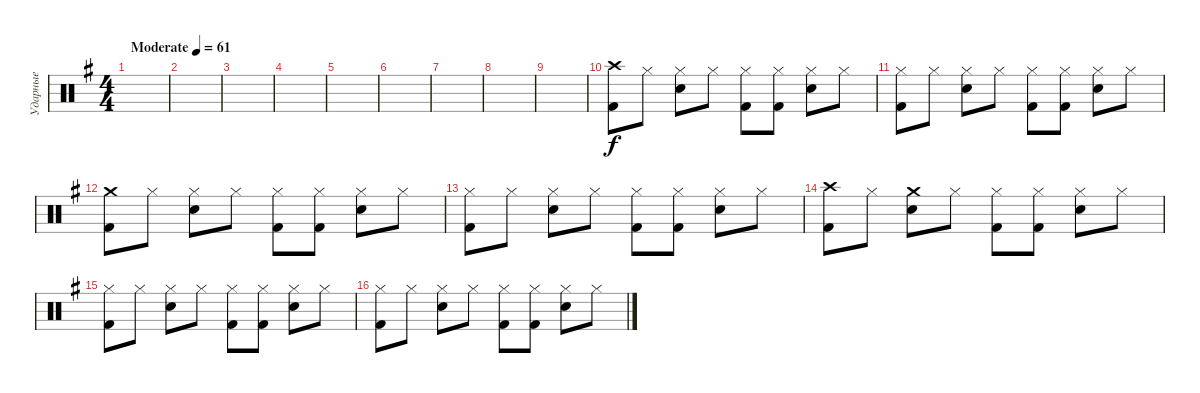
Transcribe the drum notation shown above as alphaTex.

\track ("Ударные" "Ударные") {instrument percussion}
\staff {score}
\articulation defaults
\ts (4 4)
\tempo (61 "Moderate")
\clef neutral
\ks g
|
|
|
|
|
|
|
|
|
("Crash high (hit)" "Kick (hit) 2").8 "Hi-Hat (closed)".8 ("Hi-Hat (closed)" "Electric Snare (hit)").8 "Hi-Hat (closed)".8 ("Hi-Hat (closed)" "Kick (hit) 2").8 ("Hi-Hat (closed)" "Kick (hit) 2").8 ("Hi-Hat (closed)" "Electric Snare (hit)").8 "Hi-Hat (closed)".8 |
("Hi-Hat (closed)" "Kick (hit) 2").8 "Hi-Hat (closed)".8 ("Hi-Hat (closed)" "Electric Snare (hit)").8 "Hi-Hat (closed)".8 ("Hi-Hat (closed)" "Kick (hit) 2").8 ("Hi-Hat (closed)" "Kick (hit) 2").8 ("Hi-Hat (closed)" "Electric Snare (hit)").8 "Hi-Hat (closed)".8 |
("Crash medium (hit)" "Kick (hit) 2").8 "Hi-Hat (closed)".8 ("Hi-Hat (closed)" "Electric Snare (hit)").8 "Hi-Hat (closed)".8 ("Hi-Hat (closed)" "Kick (hit) 2").8 ("Hi-Hat (closed)" "Kick (hit) 2").8 ("Hi-Hat (closed)" "Electric Snare (hit)").8 "Hi-Hat (closed)".8 |
("Hi-Hat (closed)" "Kick (hit) 2").8 "Hi-Hat (closed)".8 ("Hi-Hat (closed)" "Electric Snare (hit)").8 "Hi-Hat (closed)".8 ("Hi-Hat (closed)" "Kick (hit) 2").8 ("Hi-Hat (closed)" "Kick (hit) 2").8 ("Hi-Hat (closed)" "Electric Snare (hit)").8 "Hi-Hat (closed)".8 |
("Crash high (hit)" "Kick (hit) 2").8 "Hi-Hat (closed)".8 ("Crash medium (hit)" "Electric Snare (hit)").8 "Hi-Hat (closed)".8 ("Hi-Hat (closed)" "Kick (hit) 2").8 ("Hi-Hat (closed)" "Kick (hit) 2").8 ("Hi-Hat (closed)" "Electric Snare (hit)").8 "Hi-Hat (closed)".8 |
("Hi-Hat (closed)" "Kick (hit) 2").8 "Hi-Hat (closed)".8 ("Hi-Hat (closed)" "Electric Snare (hit)").8 "Hi-Hat (closed)".8 ("Hi-Hat (closed)" "Kick (hit) 2").8 ("Hi-Hat (closed)" "Kick (hit) 2").8 ("Hi-Hat (closed)" "Electric Snare (hit)").8 "Hi-Hat (closed)".8 |
("Hi-Hat (closed)" "Kick (hit) 2").8 "Hi-Hat (closed)".8 ("Hi-Hat (closed)" "Electric Snare (hit)").8 "Hi-Hat (closed)".8 ("Hi-Hat (closed)" "Kick (hit) 2").8 ("Hi-Hat (closed)" "Kick (hit) 2").8 ("Hi-Hat (closed)" "Electric Snare (hit)").8 "Hi-Hat (closed)".8
